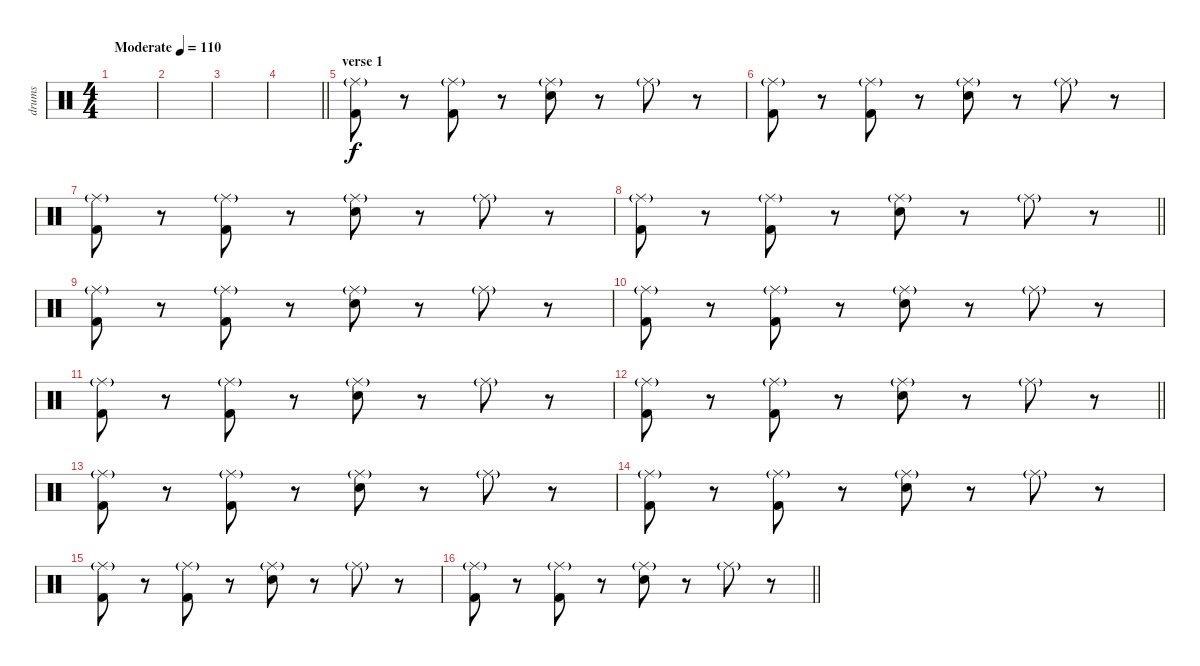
\track ("drums" "drums") {instrument percussion}
\staff {score}
\articulation defaults
\ts (4 4)
\tempo (110 "Moderate")
\clef neutral
\ks c
|
|
|
\barLineRight lightlight
|
\section ("" "verse 1")
("Kick (hit) 2" "Ride (middle)"{g}).8 r.8 ("Kick (hit) 2" "Ride (middle)"{g}).8 r.8 ("Electric Snare (hit)" "Ride (middle)"{g}).8 r.8 "Ride (middle)"{g}.8 r.8 |
("Kick (hit) 2" "Ride (middle)"{g}).8 r.8 ("Kick (hit) 2" "Ride (middle)"{g}).8 r.8 ("Electric Snare (hit)" "Ride (middle)"{g}).8 r.8 "Ride (middle)"{g}.8 r.8 |
("Kick (hit) 2" "Ride (middle)"{g}).8 r.8 ("Kick (hit) 2" "Ride (middle)"{g}).8 r.8 ("Electric Snare (hit)" "Ride (middle)"{g}).8 r.8 "Ride (middle)"{g}.8 r.8 |
\barLineRight lightlight
("Kick (hit) 2" "Ride (middle)"{g}).8 r.8 ("Kick (hit) 2" "Ride (middle)"{g}).8 r.8 ("Electric Snare (hit)" "Ride (middle)"{g}).8 r.8 "Ride (middle)"{g}.8 r.8 |
("Kick (hit) 2" "Ride (middle)"{g}).8 r.8 ("Kick (hit) 2" "Ride (middle)"{g}).8 r.8 ("Electric Snare (hit)" "Ride (middle)"{g}).8 r.8 "Ride (middle)"{g}.8 r.8 |
("Kick (hit) 2" "Ride (middle)"{g}).8 r.8 ("Kick (hit) 2" "Ride (middle)"{g}).8 r.8 ("Electric Snare (hit)" "Ride (middle)"{g}).8 r.8 "Ride (middle)"{g}.8 r.8 |
("Kick (hit) 2" "Ride (middle)"{g}).8 r.8 ("Kick (hit) 2" "Ride (middle)"{g}).8 r.8 ("Electric Snare (hit)" "Ride (middle)"{g}).8 r.8 "Ride (middle)"{g}.8 r.8 |
\barLineRight lightlight
("Kick (hit) 2" "Ride (middle)"{g}).8 r.8 ("Kick (hit) 2" "Ride (middle)"{g}).8 r.8 ("Electric Snare (hit)" "Ride (middle)"{g}).8 r.8 "Ride (middle)"{g}.8 r.8 |
("Kick (hit) 2" "Ride (middle)"{g}).8 r.8 ("Kick (hit) 2" "Ride (middle)"{g}).8 r.8 ("Electric Snare (hit)" "Ride (middle)"{g}).8 r.8 "Ride (middle)"{g}.8 r.8 |
("Kick (hit) 2" "Ride (middle)"{g}).8 r.8 ("Kick (hit) 2" "Ride (middle)"{g}).8 r.8 ("Electric Snare (hit)" "Ride (middle)"{g}).8 r.8 "Ride (middle)"{g}.8 r.8 |
("Kick (hit) 2" "Ride (middle)"{g}).8 r.8 ("Kick (hit) 2" "Ride (middle)"{g}).8 r.8 ("Electric Snare (hit)" "Ride (middle)"{g}).8 r.8 "Ride (middle)"{g}.8 r.8 |
\barLineRight lightlight
("Kick (hit) 2" "Ride (middle)"{g}).8 r.8 ("Kick (hit) 2" "Ride (middle)"{g}).8 r.8 ("Electric Snare (hit)" "Ride (middle)"{g}).8 r.8 "Ride (middle)"{g}.8 r.8
